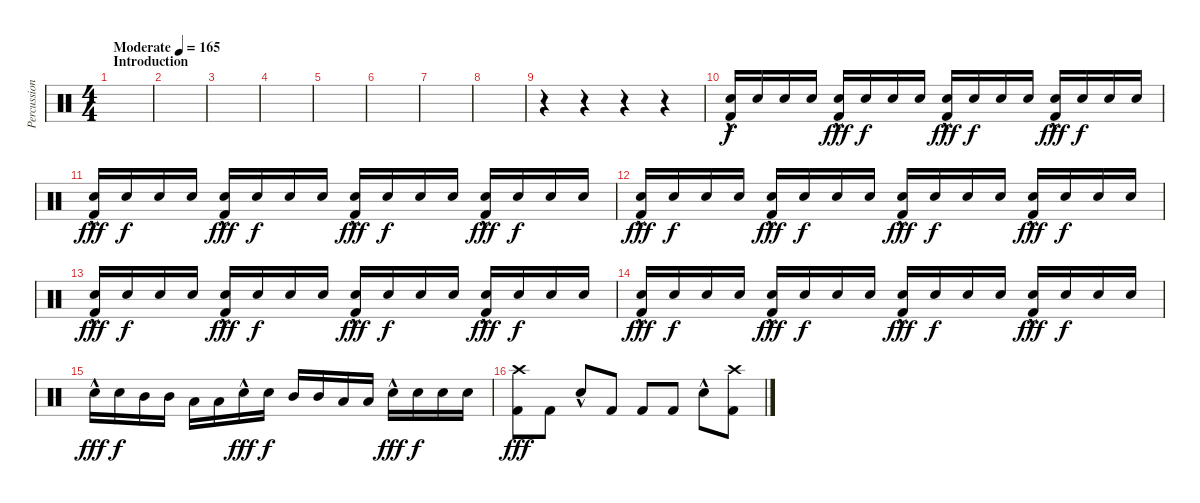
\track ("Percussions" "Percussion") {instrument percussion}
\staff {score}
\articulation defaults
\ts (4 4)
\section ("" "Introduction")
\tempo (165 "Moderate")
\clef neutral
\ks c
|
|
|
|
|
|
|
|
r.4 r.4 r.4 r.4{volume 9} |
("Snare (hit) 2" "Kick (hit) 2"{hac}).16{volume 14} "Snare (hit) 2".16{dy f} "Snare (hit) 2".16 "Snare (hit) 2".16 ("Snare (hit) 2" "Kick (hit) 2"{hac}).16{dy fff} "Snare (hit) 2".16{dy f} "Snare (hit) 2".16 "Snare (hit) 2".16 ("Snare (hit) 2" "Kick (hit) 2"{hac}).16{dy fff} "Snare (hit) 2".16{dy f} "Snare (hit) 2".16 "Snare (hit) 2".16 ("Snare (hit) 2" "Kick (hit) 2"{hac}).16{dy fff} "Snare (hit) 2".16{dy f} "Snare (hit) 2".16 "Snare (hit) 2".16 |
("Snare (hit) 2"{hac} "Kick (hit) 2"{hac}).16{dy fff} "Snare (hit) 2".16{dy f} "Snare (hit) 2".16 "Snare (hit) 2".16 ("Snare (hit) 2"{hac} "Kick (hit) 2"{hac}).16{dy fff} "Snare (hit) 2".16{dy f} "Snare (hit) 2".16 "Snare (hit) 2".16 ("Snare (hit) 2"{hac} "Kick (hit) 2"{hac}).16{dy fff} "Snare (hit) 2".16{dy f} "Snare (hit) 2".16 "Snare (hit) 2".16 ("Snare (hit) 2"{hac} "Kick (hit) 2"{hac}).16{dy fff} "Snare (hit) 2".16{dy f} "Snare (hit) 2".16 "Snare (hit) 2".16 |
("Snare (hit) 2"{hac} "Kick (hit) 2"{hac}).16{dy fff} "Snare (hit) 2".16{dy f} "Snare (hit) 2".16 "Snare (hit) 2".16 ("Snare (hit) 2"{hac} "Kick (hit) 2"{hac}).16{dy fff} "Snare (hit) 2".16{dy f} "Snare (hit) 2".16 "Snare (hit) 2".16 ("Snare (hit) 2"{hac} "Kick (hit) 2"{hac}).16{dy fff} "Snare (hit) 2".16{dy f} "Snare (hit) 2".16 "Snare (hit) 2".16 ("Snare (hit) 2"{hac} "Kick (hit) 2"{hac}).16{dy fff} "Snare (hit) 2".16{dy f} "Snare (hit) 2".16 "Snare (hit) 2".16 |
("Snare (hit) 2"{hac} "Kick (hit) 2"{hac}).16{dy fff} "Snare (hit) 2".16{dy f} "Snare (hit) 2".16 "Snare (hit) 2".16 ("Snare (hit) 2"{hac} "Kick (hit) 2"{hac}).16{dy fff} "Snare (hit) 2".16{dy f} "Snare (hit) 2".16 "Snare (hit) 2".16 ("Snare (hit) 2"{hac} "Kick (hit) 2"{hac}).16{dy fff} "Snare (hit) 2".16{dy f} "Snare (hit) 2".16 "Snare (hit) 2".16 ("Snare (hit) 2"{hac} "Kick (hit) 2"{hac}).16{dy fff} "Snare (hit) 2".16{dy f} "Snare (hit) 2".16 "Snare (hit) 2".16 |
("Snare (hit) 2"{hac} "Kick (hit) 2"{hac}).16{dy fff volume 16} "Snare (hit) 2".16{dy f} "Snare (hit) 2".16 "Snare (hit) 2".16 ("Snare (hit) 2"{hac} "Kick (hit) 2"{hac}).16{dy fff} "Snare (hit) 2".16{dy f} "Snare (hit) 2".16 "Snare (hit) 2".16 ("Snare (hit) 2"{hac} "Kick (hit) 2"{hac}).16{dy fff} "Snare (hit) 2".16{dy f} "Snare (hit) 2".16 "Snare (hit) 2".16 ("Snare (hit) 2"{hac} "Kick (hit) 2"{hac}).16{dy fff} "Snare (hit) 2".16{dy f} "Snare (hit) 2".16 "Snare (hit) 2".16 |
"Electric Snare (hit)"{hac}.16{dy fff} "Electric Snare (hit)".16{dy f} "Mid Tom (hit)".16 "Mid Tom (hit)".16 "Low Tom (hit)".16 "Low Tom (hit)".16 "Electric Snare (hit)"{hac}.16{dy fff} "Electric Snare (hit)".16{dy f} "Mid Tom (hit)".16 "Mid Tom (hit)".16 "Low Tom (hit)".16 "Low Tom (hit)".16 "Electric Snare (hit)"{hac}.16{dy fff} "Electric Snare (hit)".16{dy f} "Electric Snare (hit)".16 "Electric Snare (hit)".16 |
("Crash high (hit)" "Kick (hit) 2").8{dy fff} "Kick (hit) 2".8 "Snare (hit) 2"{hac}.8 "Kick (hit) 2".8 "Kick (hit) 2".8 "Kick (hit) 2".8 "Snare (hit) 2"{hac}.8 ("Crash high (hit)" "Kick (hit) 2").8
